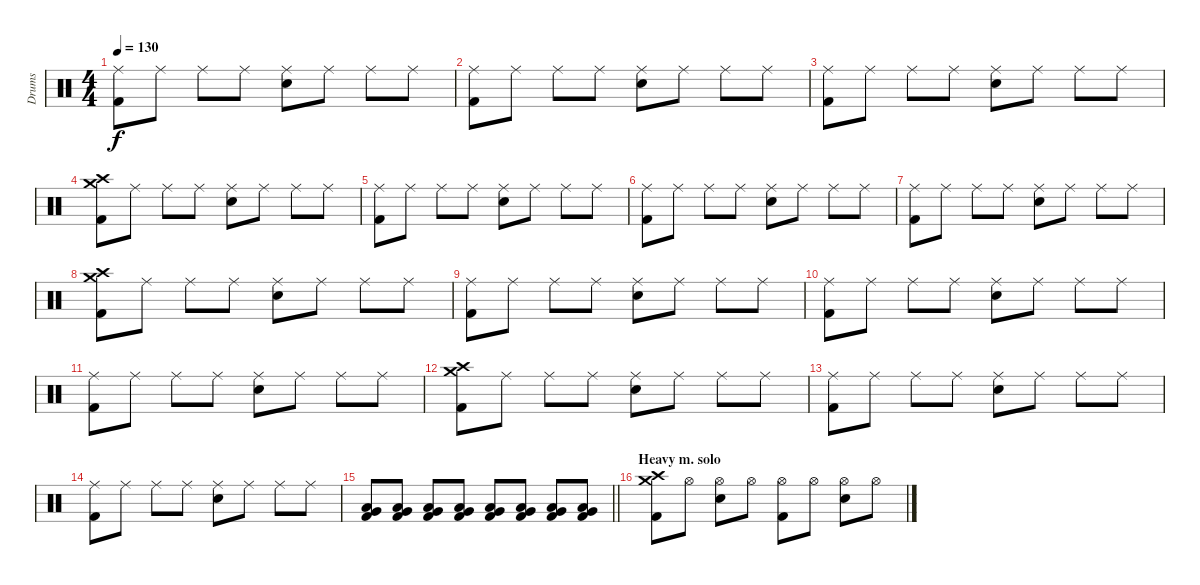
\track ("Drums" "Drums") {instrument percussion}
\staff {score}
\articulation defaults
\ts (4 4)
\tempo 130
\clef neutral
\ks c
("Ride (middle)" "Kick (hit) 2").8{dy f} "Ride (middle)".8 "Ride (middle)".8 "Ride (middle)".8 ("Ride (middle)" "Snare (hit) 2").8 "Ride (middle)".8 "Ride (middle)".8 "Ride (middle)".8 |
("Ride (middle)" "Kick (hit) 2").8 "Ride (middle)".8 "Ride (middle)".8 "Ride (middle)".8 ("Ride (middle)" "Snare (hit) 2").8 "Ride (middle)".8 "Ride (middle)".8 "Ride (middle)".8 |
("Ride (middle)" "Kick (hit) 2").8 "Ride (middle)".8 "Ride (middle)".8 "Ride (middle)".8 ("Ride (middle)" "Snare (hit) 2").8 "Ride (middle)".8 "Ride (middle)".8 "Ride (middle)".8 |
("Crash medium (hit)" "Crash high (hit)" "Kick (hit) 2").8 "Ride (middle)".8 "Ride (middle)".8 "Ride (middle)".8 ("Ride (middle)" "Snare (hit) 2").8 "Ride (middle)".8 "Ride (middle)".8 "Ride (middle)".8 |
("Ride (middle)" "Kick (hit) 2").8 "Ride (middle)".8 "Ride (middle)".8 "Ride (middle)".8 ("Ride (middle)" "Snare (hit) 2").8 "Ride (middle)".8 "Ride (middle)".8 "Ride (middle)".8 |
("Ride (middle)" "Kick (hit) 2").8 "Ride (middle)".8 "Ride (middle)".8 "Ride (middle)".8 ("Ride (middle)" "Snare (hit) 2").8 "Ride (middle)".8 "Ride (middle)".8 "Ride (middle)".8 |
("Ride (middle)" "Kick (hit) 2").8 "Ride (middle)".8 "Ride (middle)".8 "Ride (middle)".8 ("Ride (middle)" "Snare (hit) 2").8 "Ride (middle)".8 "Ride (middle)".8 "Ride (middle)".8 |
("Crash medium (hit)" "Crash high (hit)" "Kick (hit) 2").8 "Ride (middle)".8 "Ride (middle)".8 "Ride (middle)".8 ("Ride (middle)" "Snare (hit) 2").8 "Ride (middle)".8 "Ride (middle)".8 "Ride (middle)".8 |
("Ride (middle)" "Kick (hit) 2").8 "Ride (middle)".8 "Ride (middle)".8 "Ride (middle)".8 ("Ride (middle)" "Snare (hit) 2").8 "Ride (middle)".8 "Ride (middle)".8 "Ride (middle)".8 |
("Ride (middle)" "Kick (hit) 2").8 "Ride (middle)".8 "Ride (middle)".8 "Ride (middle)".8 ("Ride (middle)" "Snare (hit) 2").8 "Ride (middle)".8 "Ride (middle)".8 "Ride (middle)".8 |
("Ride (middle)" "Kick (hit) 2").8 "Ride (middle)".8 "Ride (middle)".8 "Ride (middle)".8 ("Ride (middle)" "Snare (hit) 2").8 "Ride (middle)".8 "Ride (middle)".8 "Ride (middle)".8 |
("Crash medium (hit)" "Crash high (hit)" "Kick (hit) 2").8 "Ride (middle)".8 "Ride (middle)".8 "Ride (middle)".8 ("Ride (middle)" "Snare (hit) 2").8 "Ride (middle)".8 "Ride (middle)".8 "Ride (middle)".8 |
("Ride (middle)" "Kick (hit) 2").8 "Ride (middle)".8 "Ride (middle)".8 "Ride (middle)".8 ("Ride (middle)" "Snare (hit) 2").8 "Ride (middle)".8 "Ride (middle)".8 "Ride (middle)".8 |
("Ride (middle)" "Kick (hit) 2").8 "Ride (middle)".8 "Ride (middle)".8 "Ride (middle)".8 ("Ride (middle)" "Snare (hit) 2").8 "Ride (middle)".8 "Ride (middle)".8 "Ride (middle)".8 |
\barLineRight lightlight
("Low Floor Tom (hit)" "Very Low Tom (hit)" "Kick (hit) 2").8 ("Low Floor Tom (hit)" "Very Low Tom (hit)" "Kick (hit) 2").8 ("Low Floor Tom (hit)" "Very Low Tom (hit)" "Kick (hit) 2").8 ("Low Floor Tom (hit)" "Very Low Tom (hit)" "Kick (hit) 2").8 ("Low Floor Tom (hit)" "Very Low Tom (hit)" "Kick (hit) 2").8 ("Low Floor Tom (hit)" "Very Low Tom (hit)" "Kick (hit) 2").8 ("Low Floor Tom (hit)" "Very Low Tom (hit)" "Kick (hit) 2").8 ("Low Floor Tom (hit)" "Very Low Tom (hit)" "Kick (hit) 2").8 |
\section ("" "Heavy m. solo")
("Crash medium (hit)" "Crash high (hit)" "Kick (hit) 2").8 "Hi-Hat (open)".8 ("Hi-Hat (open)" "Snare (hit) 2").8 "Hi-Hat (open)".8 ("Hi-Hat (open)" "Kick (hit) 2").8 "Hi-Hat (open)".8 ("Hi-Hat (open)" "Snare (hit) 2").8 "Hi-Hat (open)".8
